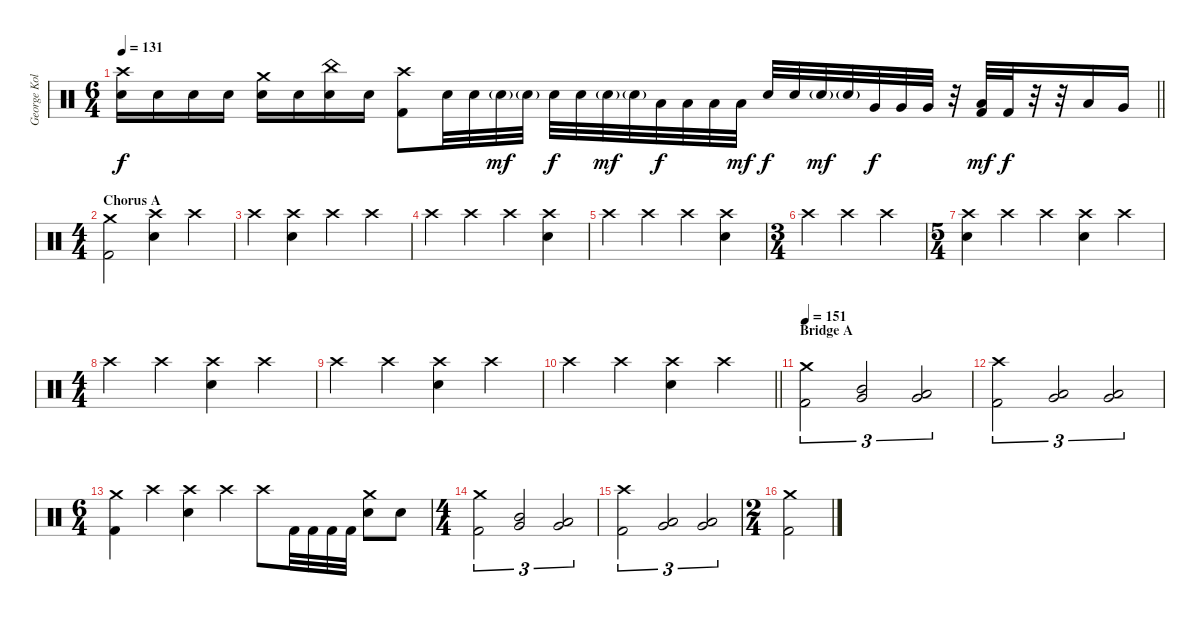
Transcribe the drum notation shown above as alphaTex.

\track ("George Kollias" "George Kol") {instrument percussion}
\staff {score}
\articulation defaults
\ts (6 4)
\tempo 131
\clef neutral
\barLineRight lightlight
\ks c
("Crash high (hit)" "Electric Snare (hit)").16{dy f} "Electric Snare (hit)".16 "Electric Snare (hit)".16 "Electric Snare (hit)".16 ("Crash medium (hit)" "Electric Snare (hit)").16 "Electric Snare (hit)".16 ("China (hit)" "Electric Snare (hit)").16 "Electric Snare (hit)".16 ("Crash high (hit)" "Kick (hit) 2").8 "Electric Snare (hit)".32 "Electric Snare (hit)".32 "Electric Snare (hit)"{g}.32{dy mf} "Electric Snare (hit)"{g}.32 "Electric Snare (hit)".32{dy f} "Electric Snare (hit)".32 "Electric Snare (hit)"{g}.32{dy mf} "Electric Snare (hit)"{g}.32 "Low Tom (hit)".32{dy f} "Low Tom (hit)".32 "Low Tom (hit)".32 "Low Tom (hit)".32{dy mf} "Electric Snare (hit)".32{dy f} "Electric Snare (hit)".32 "Electric Snare (hit)"{g}.32{dy mf} "Electric Snare (hit)"{g}.32 "Very Low Tom (hit)".32{dy f} "Very Low Tom (hit)".32 "Very Low Tom (hit)".32 r.32 ("Low Floor Tom (hit)" "Kick (hit) 2").32{dy mf} "Kick (hit) 2".32{dy f} r.32 r.32 "Low Tom (hit)".16 "Very Low Tom (hit)".16 |
\ts (4 4)
\section ("" "Chorus A")
("Crash medium (hit)" "Kick (hit) 2").2 ("Crash high (hit)" "Electric Snare (hit)").4 "Crash high (hit)".4 |
"Crash high (hit)".4 ("Crash high (hit)" "Electric Snare (hit)").4 "Crash high (hit)".4 "Crash high (hit)".4 |
"Crash high (hit)".4 "Crash high (hit)".4 "Crash high (hit)".4 ("Crash high (hit)" "Electric Snare (hit)").4 |
"Crash high (hit)".4 "Crash high (hit)".4 "Crash high (hit)".4 ("Crash high (hit)" "Electric Snare (hit)").4 |
\ts (3 4)
"Crash high (hit)".4 "Crash high (hit)".4 "Crash high (hit)".4 |
\ts (5 4)
("Crash high (hit)" "Electric Snare (hit)").4 "Crash high (hit)".4 "Crash high (hit)".4 ("Crash high (hit)" "Electric Snare (hit)").4 "Crash high (hit)".4 |
\ts (4 4)
"Crash high (hit)".4 "Crash high (hit)".4 ("Crash high (hit)" "Electric Snare (hit)").4 "Crash high (hit)".4 |
"Crash high (hit)".4 "Crash high (hit)".4 ("Crash high (hit)" "Electric Snare (hit)").4 "Crash high (hit)".4 |
\barLineRight lightlight "Crash high (hit)".4 "Crash high (hit)".4
("Crash high (hit)" "Electric Snare (hit)").4 "Crash high (hit)".4 |
\section ("" "Bridge A")
\tempo 151
("Crash medium (hit)" "Kick (hit) 2").2{tu (3 2)} ("Mid Tom (hit)" "Very Low Tom (hit)").2{tu (3 2)} ("Low Tom (hit)" "Very Low Tom (hit)").2{tu (3 2)} |
("Crash high (hit)" "Kick (hit) 2").2{tu (3 2)} ("Low Tom (hit)" "Very Low Tom (hit)").2{tu (3 2)} ("Very Low Tom (hit)" "Low Floor Tom (hit)").2{tu (3 2)} |
\ts (6 4)
("Crash medium (hit)" "Kick (hit) 2").4 "Crash high (hit)".4 ("Crash high (hit)" "Electric Snare (hit)").4 "Crash high (hit)".4 "Crash high (hit)".8 "Kick (hit) 2".32 "Kick (hit) 2".32 "Kick (hit) 2".32 "Kick (hit) 2".32 ("Crash medium (hit)" "Electric Snare (hit)").8 "Electric Snare (hit)".8 |
\ts (4 4)
("Crash medium (hit)" "Kick (hit) 2").2{tu (3 2)} ("Mid Tom (hit)" "Very Low Tom (hit)").2{tu (3 2)} ("Low Tom (hit)" "Very Low Tom (hit)").2{tu (3 2)} |
("Crash high (hit)" "Kick (hit) 2").2{tu (3 2)} ("Low Tom (hit)" "Very Low Tom (hit)").2{tu (3 2)} ("Very Low Tom (hit)" "Low Floor Tom (hit)").2{tu (3 2)} |
\ts (2 4)
("Crash medium (hit)" "Kick (hit) 2").2
